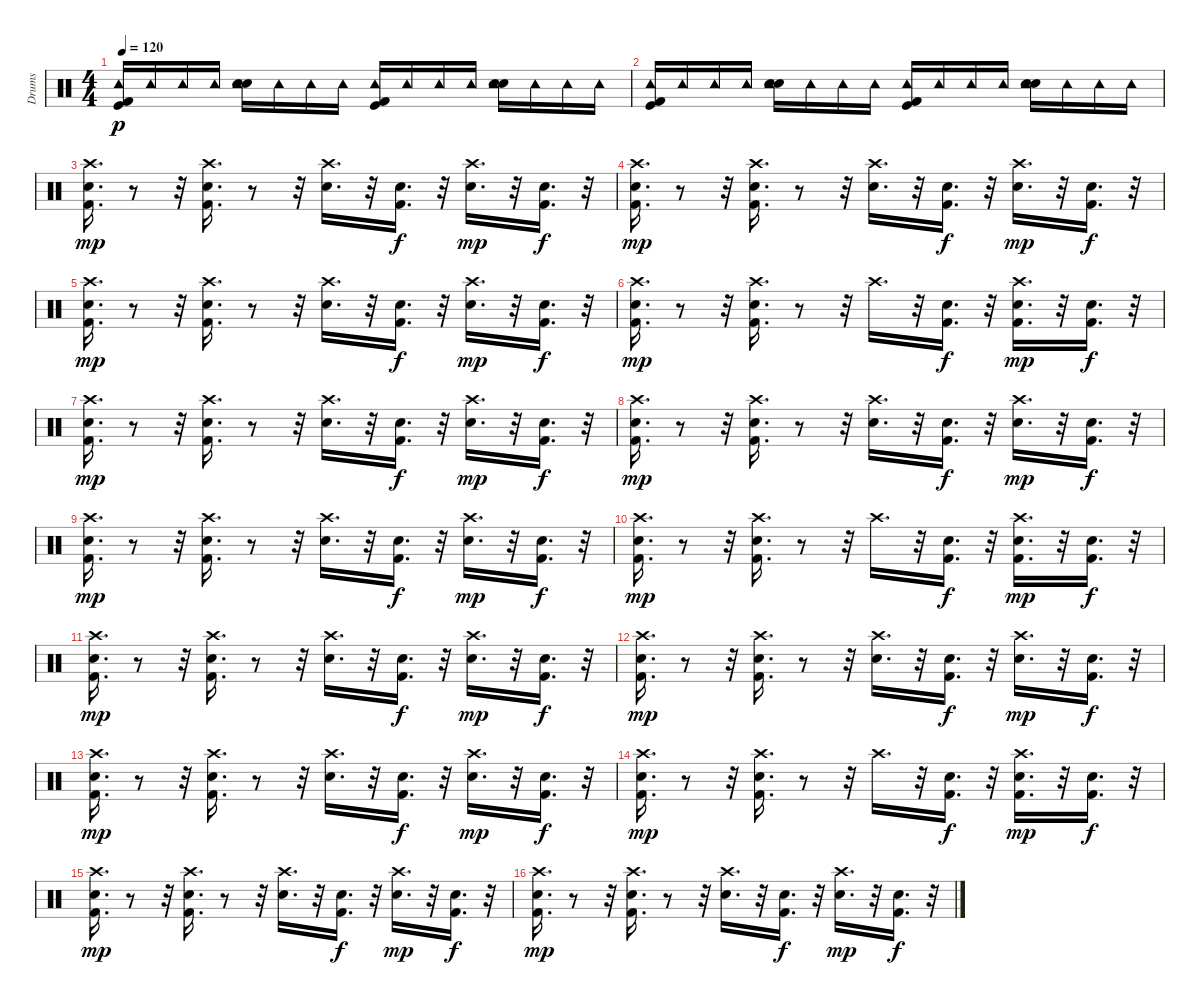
\track ("Drums" "Drums") {instrument percussion}
\staff {score}
\articulation defaults
\ts (4 4)
\tempo 120
\clef neutral
\ks c
("Kick (hit) 2" "Tambourine (hit)" "Kick (hit)").16{dy p} "Tambourine (hit)".16 "Tambourine (hit)".16 "Tambourine (hit)".16 ("Snare (hit) 2" "Tambourine (hit)" "Electric Snare (hit)").16 "Tambourine (hit)".16 "Tambourine (hit)".16 "Tambourine (hit)".16 ("Kick (hit) 2" "Tambourine (hit)" "Kick (hit)").16 "Tambourine (hit)".16 "Tambourine (hit)".16 "Tambourine (hit)".16 ("Snare (hit) 2" "Tambourine (hit)" "Electric Snare (hit)").16 "Tambourine (hit)".16 "Tambourine (hit)".16 "Tambourine (hit)".16 |
("Kick (hit) 2" "Tambourine (hit)" "Kick (hit)").16 "Tambourine (hit)".16 "Tambourine (hit)".16 "Tambourine (hit)".16 ("Snare (hit) 2" "Tambourine (hit)" "Electric Snare (hit)").16 "Tambourine (hit)".16 "Tambourine (hit)".16 "Tambourine (hit)".16 ("Kick (hit) 2" "Tambourine (hit)" "Kick (hit)").16 "Tambourine (hit)".16 "Tambourine (hit)".16 "Tambourine (hit)".16 ("Snare (hit) 2" "Tambourine (hit)" "Electric Snare (hit)").16 "Tambourine (hit)".16 "Tambourine (hit)".16 "Tambourine (hit)".16 |
("Crash high (hit)" "Snare (hit) 2" "Kick (hit) 2").16{d dy mp} r.8 r.32 ("Snare (hit) 2" "Crash high (hit)" "Kick (hit) 2").16{d} r.8 r.32 ("Crash high (hit)" "Electric Snare (hit)").16{d} r.32 ("Snare (hit) 2" "Kick (hit) 2").16{d dy f} r.32 ("Crash high (hit)" "Electric Snare (hit)").16{d dy mp} r.32 ("Snare (hit) 2" "Kick (hit) 2").16{d dy f} r.32 |
("Crash high (hit)" "Snare (hit) 2" "Kick (hit) 2").16{d dy mp} r.8 r.32 ("Snare (hit) 2" "Crash high (hit)" "Kick (hit) 2").16{d} r.8 r.32 ("Crash high (hit)" "Electric Snare (hit)").16{d} r.32 ("Snare (hit) 2" "Kick (hit) 2").16{d dy f} r.32 ("Crash high (hit)" "Electric Snare (hit)").16{d dy mp} r.32 ("Snare (hit) 2" "Kick (hit) 2").16{d dy f} r.32 |
("Crash high (hit)" "Snare (hit) 2" "Kick (hit) 2").16{d dy mp} r.8 r.32 ("Snare (hit) 2" "Crash high (hit)" "Kick (hit) 2").16{d} r.8 r.32 ("Crash high (hit)" "Electric Snare (hit)").16{d} r.32 ("Snare (hit) 2" "Kick (hit) 2").16{d dy f} r.32 ("Crash high (hit)" "Electric Snare (hit)").16{d dy mp} r.32 ("Snare (hit) 2" "Kick (hit) 2").16{d dy f} r.32 |
("Crash high (hit)" "Snare (hit) 2" "Kick (hit) 2").16{d dy mp} r.8 r.32 ("Snare (hit) 2" "Crash high (hit)" "Kick (hit) 2").16{d} r.8 r.32 "Crash high (hit)".16{d} r.32 ("Snare (hit) 2" "Kick (hit) 2").16{d dy f} r.32 ("Crash high (hit)" "Kick (hit) 2" "Snare (hit) 2").16{d dy mp} r.32 ("Snare (hit) 2" "Kick (hit) 2").16{d dy f} r.32 |
("Crash high (hit)" "Snare (hit) 2" "Kick (hit) 2").16{d dy mp} r.8 r.32 ("Snare (hit) 2" "Crash high (hit)" "Kick (hit) 2").16{d} r.8 r.32 ("Crash high (hit)" "Electric Snare (hit)").16{d} r.32 ("Snare (hit) 2" "Kick (hit) 2").16{d dy f} r.32 ("Crash high (hit)" "Electric Snare (hit)").16{d dy mp} r.32 ("Snare (hit) 2" "Kick (hit) 2").16{d dy f} r.32 |
("Crash high (hit)" "Snare (hit) 2" "Kick (hit) 2").16{d dy mp} r.8 r.32 ("Snare (hit) 2" "Crash high (hit)" "Kick (hit) 2").16{d} r.8 r.32 ("Crash high (hit)" "Electric Snare (hit)").16{d} r.32 ("Snare (hit) 2" "Kick (hit) 2").16{d dy f} r.32 ("Crash high (hit)" "Electric Snare (hit)").16{d dy mp} r.32 ("Snare (hit) 2" "Kick (hit) 2").16{d dy f} r.32 |
("Crash high (hit)" "Snare (hit) 2" "Kick (hit) 2").16{d dy mp} r.8 r.32 ("Snare (hit) 2" "Crash high (hit)" "Kick (hit) 2").16{d} r.8 r.32 ("Crash high (hit)" "Electric Snare (hit)").16{d} r.32 ("Snare (hit) 2" "Kick (hit) 2").16{d dy f} r.32 ("Crash high (hit)" "Electric Snare (hit)").16{d dy mp} r.32 ("Snare (hit) 2" "Kick (hit) 2").16{d dy f} r.32 |
("Crash high (hit)" "Snare (hit) 2" "Kick (hit) 2").16{d dy mp} r.8 r.32 ("Snare (hit) 2" "Crash high (hit)" "Kick (hit) 2").16{d} r.8 r.32 "Crash high (hit)".16{d} r.32 ("Snare (hit) 2" "Kick (hit) 2").16{d dy f} r.32 ("Crash high (hit)" "Kick (hit) 2" "Snare (hit) 2").16{d dy mp} r.32 ("Snare (hit) 2" "Kick (hit) 2").16{d dy f} r.32 |
("Crash high (hit)" "Snare (hit) 2" "Kick (hit) 2").16{d dy mp} r.8 r.32 ("Snare (hit) 2" "Crash high (hit)" "Kick (hit) 2").16{d} r.8 r.32 ("Crash high (hit)" "Electric Snare (hit)").16{d} r.32 ("Snare (hit) 2" "Kick (hit) 2").16{d dy f} r.32 ("Crash high (hit)" "Electric Snare (hit)").16{d dy mp} r.32 ("Snare (hit) 2" "Kick (hit) 2").16{d dy f} r.32 |
("Crash high (hit)" "Snare (hit) 2" "Kick (hit) 2").16{d dy mp} r.8 r.32 ("Snare (hit) 2" "Crash high (hit)" "Kick (hit) 2").16{d} r.8 r.32 ("Crash high (hit)" "Electric Snare (hit)").16{d} r.32 ("Snare (hit) 2" "Kick (hit) 2").16{d dy f} r.32 ("Crash high (hit)" "Electric Snare (hit)").16{d dy mp} r.32 ("Snare (hit) 2" "Kick (hit) 2").16{d dy f} r.32 |
("Crash high (hit)" "Snare (hit) 2" "Kick (hit) 2").16{d dy mp} r.8 r.32 ("Snare (hit) 2" "Crash high (hit)" "Kick (hit) 2").16{d} r.8 r.32 ("Crash high (hit)" "Electric Snare (hit)").16{d} r.32 ("Snare (hit) 2" "Kick (hit) 2").16{d dy f} r.32 ("Crash high (hit)" "Electric Snare (hit)").16{d dy mp} r.32 ("Snare (hit) 2" "Kick (hit) 2").16{d dy f} r.32 |
("Crash high (hit)" "Snare (hit) 2" "Kick (hit) 2").16{d dy mp} r.8 r.32 ("Snare (hit) 2" "Crash high (hit)" "Kick (hit) 2").16{d} r.8 r.32 "Crash high (hit)".16{d} r.32 ("Snare (hit) 2" "Kick (hit) 2").16{d dy f} r.32 ("Crash high (hit)" "Kick (hit) 2" "Snare (hit) 2").16{d dy mp} r.32 ("Snare (hit) 2" "Kick (hit) 2").16{d dy f} r.32 |
("Crash high (hit)" "Snare (hit) 2" "Kick (hit) 2").16{d dy mp} r.8 r.32 ("Snare (hit) 2" "Crash high (hit)" "Kick (hit) 2").16{d} r.8 r.32 ("Crash high (hit)" "Electric Snare (hit)").16{d} r.32 ("Snare (hit) 2" "Kick (hit) 2").16{d dy f} r.32 ("Crash high (hit)" "Electric Snare (hit)").16{d dy mp} r.32 ("Snare (hit) 2" "Kick (hit) 2").16{d dy f} r.32 |
("Crash high (hit)" "Snare (hit) 2" "Kick (hit) 2").16{d dy mp} r.8 r.32 ("Snare (hit) 2" "Crash high (hit)" "Kick (hit) 2").16{d} r.8 r.32 ("Crash high (hit)" "Electric Snare (hit)").16{d} r.32 ("Snare (hit) 2" "Kick (hit) 2").16{d dy f} r.32 ("Crash high (hit)" "Electric Snare (hit)").16{d dy mp} r.32 ("Snare (hit) 2" "Kick (hit) 2").16{d dy f} r.32
